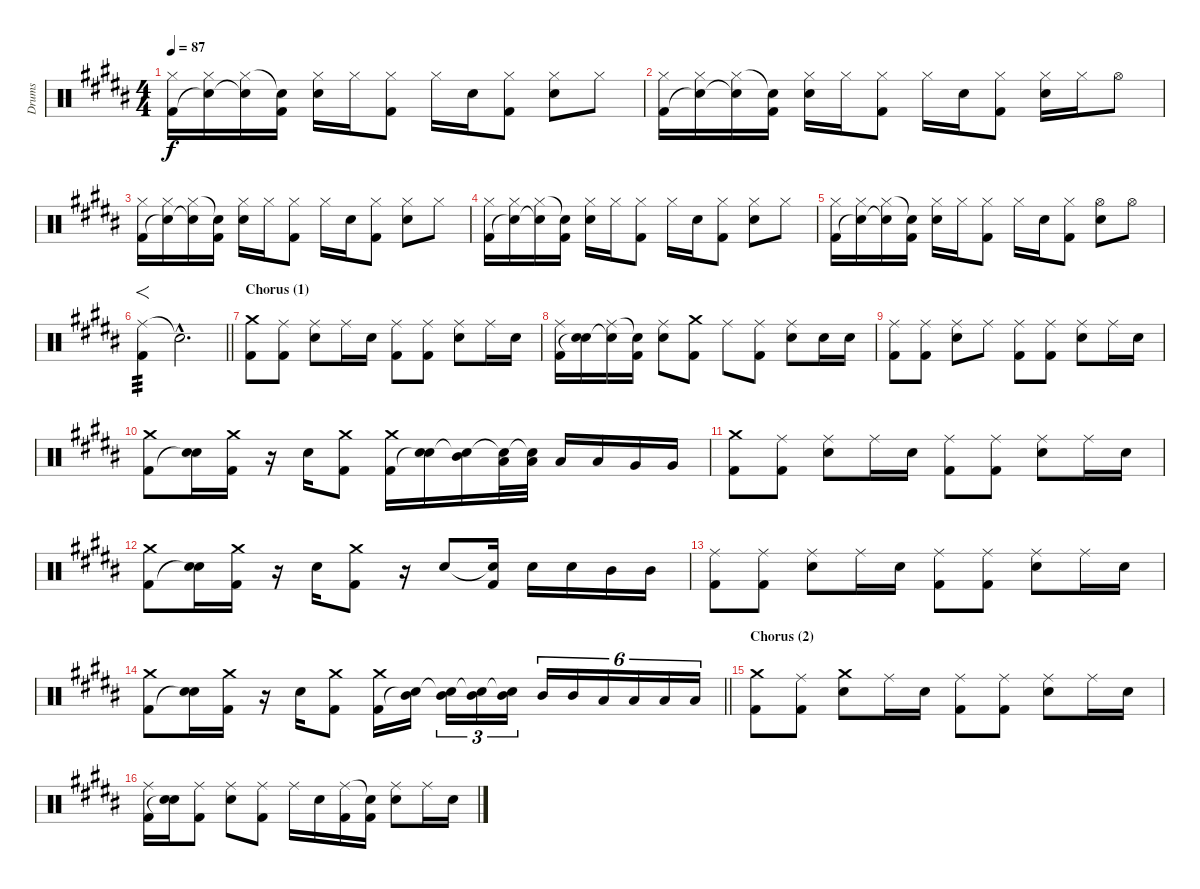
\track ("Drums" "Drums") {instrument percussion}
\staff {score}
\articulation defaults
\ts (4 4)
\tempo 87
\clef neutral
\ks b
("Hi-Hat (closed)" "Kick (hit) 2").16{dy f} ("Hi-Hat (closed)" "Snare (hit)"{t}).16 ("Hi-Hat (closed)" "Snare (hit)"{t}).16 ("Snare (hit)"{t} "Kick (hit) 2").16 ("Hi-Hat (closed)" "Electric Snare (hit)").16 "Hi-Hat (closed)".16 ("Hi-Hat (closed)" "Kick (hit) 2").8 "Hi-Hat (closed)".16 "Electric Snare (hit)".16 ("Hi-Hat (closed)" "Kick (hit) 2").8 ("Hi-Hat (closed)" "Electric Snare (hit)").8 "Hi-Hat (closed)".8 |
("Hi-Hat (closed)" "Kick (hit) 2").16 ("Hi-Hat (closed)" "Snare (hit)"{t}).16 ("Hi-Hat (closed)" "Snare (hit)"{t}).16 ("Snare (hit)"{t} "Kick (hit) 2").16 ("Hi-Hat (closed)" "Electric Snare (hit)").16 "Hi-Hat (closed)".16 ("Hi-Hat (closed)" "Kick (hit) 2").8 "Hi-Hat (closed)".16 "Electric Snare (hit)".16 ("Hi-Hat (closed)" "Kick (hit) 2").8 ("Hi-Hat (closed)" "Electric Snare (hit)").16 "Hi-Hat (closed)".16 "Hi-Hat (open)".8 |
("Hi-Hat (closed)" "Kick (hit) 2").16 ("Hi-Hat (closed)" "Snare (hit)"{t}).16 ("Hi-Hat (closed)" "Snare (hit)"{t}).16 ("Snare (hit)"{t} "Kick (hit) 2").16 ("Hi-Hat (closed)" "Electric Snare (hit)").16 "Hi-Hat (closed)".16 ("Hi-Hat (closed)" "Kick (hit) 2").8 "Hi-Hat (closed)".16 "Electric Snare (hit)".16 ("Hi-Hat (closed)" "Kick (hit) 2").8 ("Hi-Hat (closed)" "Electric Snare (hit)").8 "Hi-Hat (closed)".8 |
("Hi-Hat (closed)" "Kick (hit) 2").16 ("Hi-Hat (closed)" "Snare (hit)"{t}).16 ("Hi-Hat (closed)" "Snare (hit)"{t}).16 ("Snare (hit)"{t} "Kick (hit) 2").16 ("Hi-Hat (closed)" "Electric Snare (hit)").16 "Hi-Hat (closed)".16 ("Hi-Hat (closed)" "Kick (hit) 2").8 "Hi-Hat (closed)".16 "Electric Snare (hit)".16 ("Hi-Hat (closed)" "Kick (hit) 2").8 ("Hi-Hat (closed)" "Electric Snare (hit)").8 "Hi-Hat (closed)".8 |
("Hi-Hat (closed)" "Kick (hit) 2").16 ("Hi-Hat (closed)" "Snare (hit)"{t}).16 ("Hi-Hat (closed)" "Snare (hit)"{t}).16 ("Snare (hit)"{t} "Kick (hit) 2").16 ("Hi-Hat (closed)" "Electric Snare (hit)").16 "Hi-Hat (closed)".16 ("Hi-Hat (closed)" "Kick (hit) 2").8 "Hi-Hat (closed)".16 "Electric Snare (hit)".16 ("Hi-Hat (closed)" "Kick (hit) 2").8 ("Hi-Hat (open)" "Electric Snare (hit)").8 "Hi-Hat (open)".8 |
\barLineRight lightlight
("Ride (middle)" "Kick (hit) 2").4{f tp 3} "Snare (hit)"{hac t}.2{d} |
\section ("" "Chorus (1)")
("Crash medium (hit)" "Kick (hit) 2").8 ("Ride (middle)" "Kick (hit) 2").8 ("Ride (middle)" "Electric Snare (hit)").8 "Ride (middle)".16 "Electric Snare (hit)".16 ("Ride (middle)" "Kick (hit) 2").8 ("Ride (middle)" "Kick (hit) 2").8 ("Ride (middle)" "Electric Snare (hit)").8 "Ride (middle)".16 "Electric Snare (hit)".16 |
("Ride (middle)" "Kick (hit) 2").16 ("Electric Snare (hit)" "Snare (hit)"{t}).16 ("Ride (middle)" "Snare (hit)"{t}).16 ("Snare (hit)"{t} "Kick (hit) 2").16 ("Ride (middle)" "Electric Snare (hit)").8 ("Crash medium (hit)" "Kick (hit) 2").8 "Ride (middle)".8 ("Ride (middle)" "Kick (hit) 2").8 ("Ride (middle)" "Electric Snare (hit)").8 "Electric Snare (hit)".16 "Electric Snare (hit)".16 |
("Ride (middle)" "Kick (hit) 2").8 ("Ride (middle)" "Kick (hit) 2").8 ("Ride (middle)" "Electric Snare (hit)").8 "Ride (middle)".8 ("Ride (middle)" "Kick (hit) 2").8 ("Ride (middle)" "Kick (hit) 2").8 ("Ride (middle)" "Electric Snare (hit)").8 "Ride (middle)".16 "Electric Snare (hit)".16 |
("Crash medium (hit)" "Kick (hit) 2").8 ("Electric Snare (hit)" "Snare (hit)"{t}).16 ("Crash medium (hit)" "Kick (hit) 2").16 r.16 "Electric Snare (hit)".16 ("Crash medium (hit)" "Kick (hit) 2").8 ("Crash medium (hit)" "Kick (hit) 2").16 ("Electric Snare (hit)" "Snare (hit)"{t}).16 ("Mid Tom (hit)" "Snare (hit)"{t}).16 ("Low Tom (hit)" "Snare (hit)"{t}).32 ("Low Tom (hit)" "Snare (hit)"{t}).32 "Low Tom (hit)".16 "Low Tom (hit)".16 "Very Low Tom (hit)".16 "Very Low Tom (hit)".16 |
("Crash medium (hit)" "Kick (hit) 2").8 ("Ride (middle)" "Kick (hit) 2").8 ("Ride (middle)" "Electric Snare (hit)").8 "Ride (middle)".16 "Electric Snare (hit)".16 ("Ride (middle)" "Kick (hit) 2").8 ("Ride (middle)" "Kick (hit) 2").8 ("Ride (middle)" "Electric Snare (hit)").8 "Ride (middle)".16 "Electric Snare (hit)".16 |
("Crash medium (hit)" "Kick (hit) 2").8 ("Electric Snare (hit)" "Snare (hit)"{t}).16 ("Crash medium (hit)" "Kick (hit) 2").16 r.16 "Electric Snare (hit)".16 ("Crash medium (hit)" "Kick (hit) 2").8 r.16 "Electric Snare (hit)".8 ("Snare (hit)"{t} "Kick (hit) 2").16 "Electric Snare (hit)".16 "Electric Snare (hit)".16 "Mid Tom (hit)".16 "Mid Tom (hit)".16 |
("Ride (middle)" "Kick (hit) 2").8 ("Ride (middle)" "Kick (hit) 2").8 ("Ride (middle)" "Electric Snare (hit)").8 "Ride (middle)".16 "Electric Snare (hit)".16 ("Ride (middle)" "Kick (hit) 2").8 ("Ride (middle)" "Kick (hit) 2").8 ("Ride (middle)" "Electric Snare (hit)").8 "Ride (middle)".16 "Electric Snare (hit)".16 |
\barLineRight lightlight
("Crash medium (hit)" "Kick (hit) 2").8 ("Electric Snare (hit)" "Snare (hit)"{t}).16 ("Crash medium (hit)" "Kick (hit) 2").16 r.16 "Electric Snare (hit)".16 ("Crash medium (hit)" "Kick (hit) 2").8 ("Crash medium (hit)" "Kick (hit) 2").16 ("Mid Tom (hit)" "Snare (hit)"{t}).16 ("Mid Tom (hit)" "Snare (hit)"{t}).16{tu (3 2)} ("Mid Tom (hit)" "Snare (hit)"{t}).16{tu (3 2)} ("Mid Tom (hit)" "Snare (hit)"{t}).16{tu (3 2)} "Mid Tom (hit)".16{tu (6 4)} "Mid Tom (hit)".16{tu (6 4)} "Low Tom (hit)".16{tu (6 4)} "Low Tom (hit)".16{tu (6 4)} "Low Tom (hit)".16{tu (6 4)} "Low Tom (hit)".16{tu (6 4)} |
\section ("" "Chorus (2)")
("Crash medium (hit)" "Kick (hit) 2").8 ("Ride (middle)" "Kick (hit) 2").8 ("Crash medium (hit)" "Electric Snare (hit)").8 "Ride (middle)".16 "Electric Snare (hit)".16 ("Ride (middle)" "Kick (hit) 2").8 ("Ride (middle)" "Kick (hit) 2").8 ("Ride (middle)" "Electric Snare (hit)").8 "Ride (middle)".16 "Electric Snare (hit)".16 |
("Ride (middle)" "Kick (hit) 2").16 ("Electric Snare (hit)" "Snare (hit)"{t}).16 ("Ride (middle)" "Kick (hit) 2").8 ("Ride (middle)" "Electric Snare (hit)").8 ("Ride (middle)" "Kick (hit) 2").8 "Ride (middle)".16 "Electric Snare (hit)".16 ("Ride (middle)" "Kick (hit) 2").16 ("Snare (hit)"{t} "Kick (hit) 2").16 ("Ride (middle)" "Electric Snare (hit)").8 "Ride (middle)".16 "Electric Snare (hit)".16
